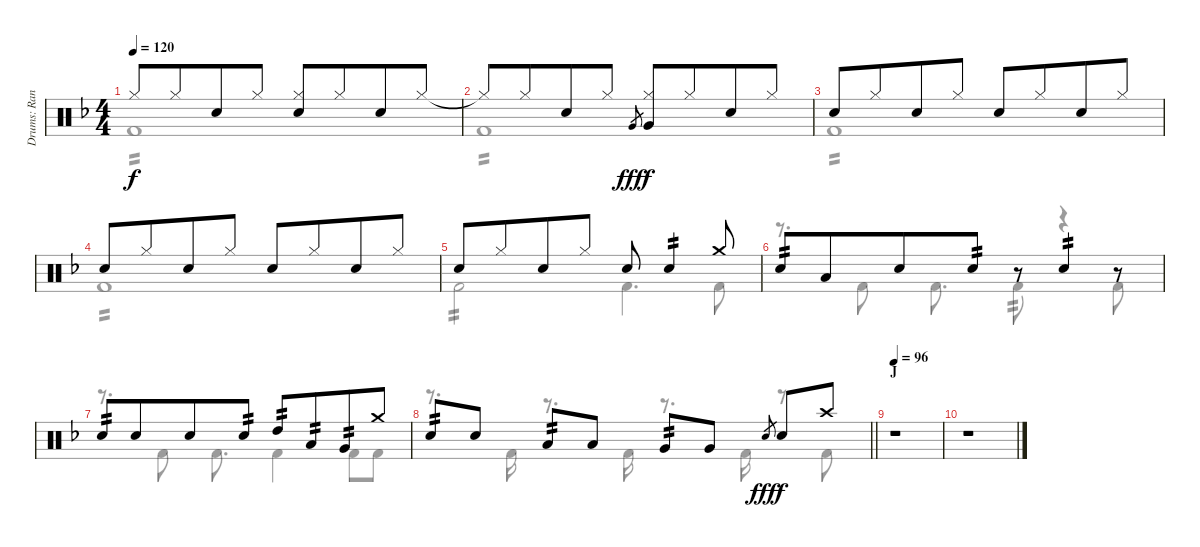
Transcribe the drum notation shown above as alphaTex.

\track ("Drums: Randy" "Drums: Ran") {instrument percussion}
\staff {score}
\articulation defaults
\voice
\ts (4 4)
\tempo 120
\clef neutral
\ks f "Hi-Hat (closed)".8{dy f} "Hi-Hat (closed)".8{beam merge} "Snare (hit) 2".8 "Hi-Hat (closed)".8
("Hi-Hat (closed)" "Snare (hit) 2").8 "Hi-Hat (closed)".8{beam merge} "Snare (hit) 2".8 "Hi-Hat (closed)".8 |
"Hi-Hat (closed)"{t}.8 "Hi-Hat (closed)".8{beam merge} "Snare (hit) 2".8 "Hi-Hat (closed)".8 "Very Low Tom (hit)".8{gr dy fff} ("Hi-Hat (closed)" "Very Low Tom (hit)").8{dy f} "Hi-Hat (closed)".8{beam merge} "Snare (hit) 2".8 "Hi-Hat (closed)".8 |
"Snare (hit) 2".8 "Hi-Hat (closed)".8{beam merge} "Snare (hit) 2".8 "Hi-Hat (closed)".8 "Snare (hit) 2".8 "Hi-Hat (closed)".8{beam merge} "Snare (hit) 2".8 "Hi-Hat (closed)".8 |
"Snare (hit) 2".8 "Hi-Hat (closed)".8{beam merge} "Snare (hit) 2".8 "Hi-Hat (closed)".8 "Snare (hit) 2".8 "Hi-Hat (closed)".8{beam merge} "Snare (hit) 2".8 "Hi-Hat (closed)".8 |
"Snare (hit) 2".8 "Hi-Hat (closed)".8{beam merge} "Snare (hit) 2".8 "Hi-Hat (closed)".8 "Snare (hit) 2".8 "Snare (hit) 2".4{tp 2} "Crash medium (hit)".8 |
"Snare (hit) 2".8{tp 2} "Low Tom (hit)".8{beam merge} "Snare (hit) 2".8 "Snare (hit) 2".8{tp 2} r.8 "Snare (hit) 2".4{tp 2} r.8 |
"Snare (hit) 2".8{tp 2} "Snare (hit) 2".8{beam merge} "Snare (hit) 2".8 "Snare (hit) 2".8{tp 2} "High Tom (hit)".8{tp 2} "Low Tom (hit)".8{tp 2 beam merge} "Very Low Tom (hit)".8{tp 2} "Crash medium (hit)".8 |
\barLineRight lightlight "Snare (hit) 2".8{tp 2} "Snare (hit) 2".8 "Low Tom (hit)".8{tp 2} "Low Tom (hit)".8 "Very Low Tom (hit)".8{tp 2} "Very Low Tom (hit)".8 "Electric Snare (hit)".8{gr dy fff} "Snare (hit) 2".8{dy f} "Crash high (hit)".8
|
\section ("" "J")
\tempo 96
r.1 |
r.1 |
|
|
|
\voice
\clef neutral
\ottava regular
\simile none
\ks f "Kick (hit) 2".1{tp 2 dy f}
|
"Kick (hit) 2".1{tp 2} |
"Kick (hit) 2".1{tp 2} |
"Kick (hit) 2".1{tp 2} |
"Kick (hit) 2".2{tp 2} "Kick (hit) 2".4{d} "Kick (hit) 2".8 |
r.8{d} "Kick (hit) 2".8 "Kick (hit) 2".8{d} "Kick (hit) 2".8{tp 2} r.4 "Kick (hit) 2".8 |
r.8{d} "Kick (hit) 2".8 "Kick (hit) 2".8{d} "Kick (hit) 2".4 "Kick (hit) 2".8 "Kick (hit) 2".8 |
\barLineRight lightlight
r.8{d} "Kick (hit) 2".16 r.8{d} "Kick (hit) 2".16 r.8{d} "Kick (hit) 2".16 r.8 "Kick (hit) 2".8 |
|
|
|
|
|
